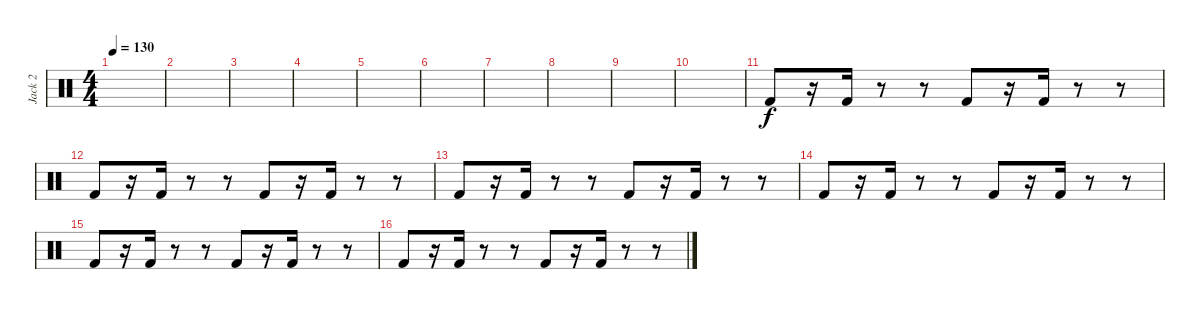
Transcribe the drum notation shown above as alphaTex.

\track ("Jack 2" "Jack 2") {instrument percussion}
\staff {score}
\articulation defaults
\ts (4 4)
\tempo 130
\clef neutral
\ks c
|
|
|
|
|
|
|
|
|
|
"Kick (hit) 2".8 r.16 "Kick (hit) 2".16 r.8 r.8 "Kick (hit) 2".8 r.16 "Kick (hit) 2".16 r.8 r.8 |
"Kick (hit) 2".8 r.16 "Kick (hit) 2".16 r.8 r.8 "Kick (hit) 2".8 r.16 "Kick (hit) 2".16 r.8 r.8 |
"Kick (hit) 2".8 r.16 "Kick (hit) 2".16 r.8 r.8 "Kick (hit) 2".8 r.16 "Kick (hit) 2".16 r.8 r.8 |
"Kick (hit) 2".8 r.16 "Kick (hit) 2".16 r.8 r.8 "Kick (hit) 2".8 r.16 "Kick (hit) 2".16 r.8 r.8 |
"Kick (hit) 2".8 r.16 "Kick (hit) 2".16 r.8 r.8 "Kick (hit) 2".8 r.16 "Kick (hit) 2".16 r.8 r.8 |
"Kick (hit) 2".8 r.16 "Kick (hit) 2".16 r.8 r.8 "Kick (hit) 2".8 r.16 "Kick (hit) 2".16 r.8 r.8
